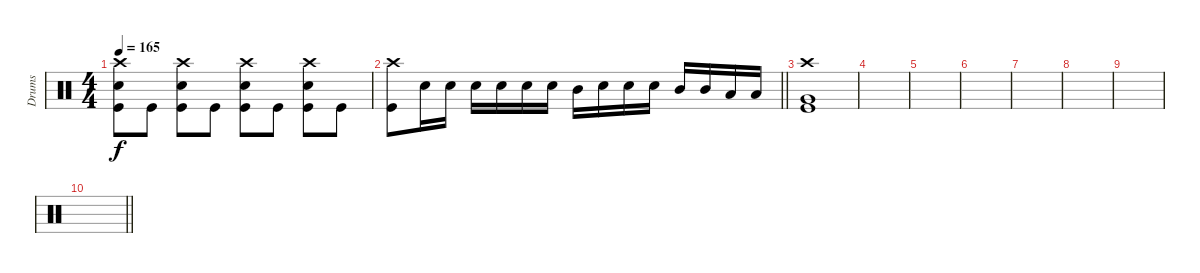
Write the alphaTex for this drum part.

\track ("Drums" "Drums") {instrument percussion}
\staff {score}
\articulation defaults
\ts (4 4)
\tempo 165
\clef neutral
\ks c
("Crash high (hit)" "Snare (hit) 2" "Kick (hit)").8{dy f} "Kick (hit)".8 ("Crash high (hit)" "Snare (hit) 2" "Kick (hit)").8 "Kick (hit)".8 ("Crash high (hit)" "Snare (hit) 2" "Kick (hit)").8 "Kick (hit)".8 ("Crash high (hit)" "Snare (hit) 2" "Kick (hit)").8 "Kick (hit)".8 |
\barLineRight lightlight
("Crash high (hit)" "Kick (hit)").8 "Snare (hit) 2".16 "Snare (hit) 2".16 "Snare (hit) 2".16 "Snare (hit) 2".16 "Snare (hit) 2".16 "Snare (hit) 2".16 "Mid Tom (hit)".16 "Snare (hit) 2".16 "Snare (hit) 2".16 "Snare (hit) 2".16 "Mid Tom (hit)".16 "Mid Tom (hit)".16 "Low Tom (hit)".16 "Low Tom (hit)".16 |
("Crash high (hit)" "Very Low Tom (hit)" "Kick (hit)").1 |
|
|
|
|
|
|
\barLineRight lightlight
